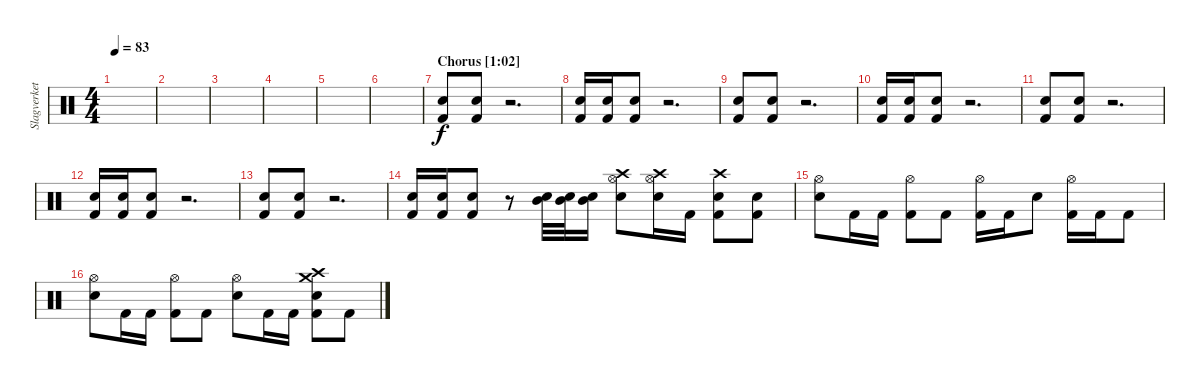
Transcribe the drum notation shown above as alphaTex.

\track ("Slagverket!" "Slagverket") {instrument percussion}
\staff {score}
\articulation defaults
\ts (4 4)
\tempo 83
\clef neutral
\ks c
|
|
|
|
|
|
\section ("" "Chorus [1:02]")
("Snare (hit) 2" "Kick (hit) 2").8 ("Snare (hit) 2" "Kick (hit) 2").8 r.2{d} |
("Snare (hit) 2" "Kick (hit) 2").16 ("Snare (hit) 2" "Kick (hit) 2").16 ("Snare (hit) 2" "Kick (hit) 2").8 r.2{d} |
("Snare (hit) 2" "Kick (hit) 2").8 ("Snare (hit) 2" "Kick (hit) 2").8 r.2{d} |
("Snare (hit) 2" "Kick (hit) 2").16 ("Snare (hit) 2" "Kick (hit) 2").16 ("Snare (hit) 2" "Kick (hit) 2").8 r.2{d} |
("Snare (hit) 2" "Kick (hit) 2").8 ("Snare (hit) 2" "Kick (hit) 2").8 r.2{d} |
("Snare (hit) 2" "Kick (hit) 2").16 ("Snare (hit) 2" "Kick (hit) 2").16 ("Snare (hit) 2" "Kick (hit) 2").8 r.2{d} |
("Snare (hit) 2" "Kick (hit) 2").8 ("Snare (hit) 2" "Kick (hit) 2").8 r.2{d} |
("Snare (hit) 2" "Kick (hit) 2").16 ("Snare (hit) 2" "Kick (hit) 2").16 ("Snare (hit) 2" "Kick (hit) 2").8 r.8 ("Mid Tom (hit)" "Snare (hit) 2").32 ("Mid Tom (hit)" "Snare (hit) 2").32 ("Mid Tom (hit)" "Snare (hit) 2").16 ("Hi-Hat (open)" "Crash high (hit)" "Snare (hit) 2").8 ("Hi-Hat (open)" "Crash high (hit)" "Snare (hit) 2").16 "Kick (hit) 2".16 ("Crash high (hit)" "Snare (hit) 2" "Kick (hit) 2").8 ("Snare (hit) 2" "Kick (hit) 2").8 |
("Hi-Hat (open)" "Snare (hit) 2").8 "Kick (hit) 2".16 "Kick (hit) 2".16 ("Hi-Hat (open)" "Kick (hit) 2").8 "Kick (hit) 2".8 ("Hi-Hat (open)" "Kick (hit) 2").16 "Kick (hit) 2".16 "Snare (hit) 2".8 ("Hi-Hat (open)" "Kick (hit) 2").16 "Kick (hit) 2".16 "Kick (hit) 2".8 |
("Hi-Hat (open)" "Snare (hit) 2").8 "Kick (hit) 2".16 "Kick (hit) 2".16 ("Hi-Hat (open)" "Kick (hit) 2").8 "Kick (hit) 2".8 ("Hi-Hat (open)" "Snare (hit) 2").8 "Kick (hit) 2".16 "Kick (hit) 2".16 ("Crash high (hit)" "Crash medium (hit)" "Snare (hit) 2" "Kick (hit) 2").8 "Kick (hit) 2".8
